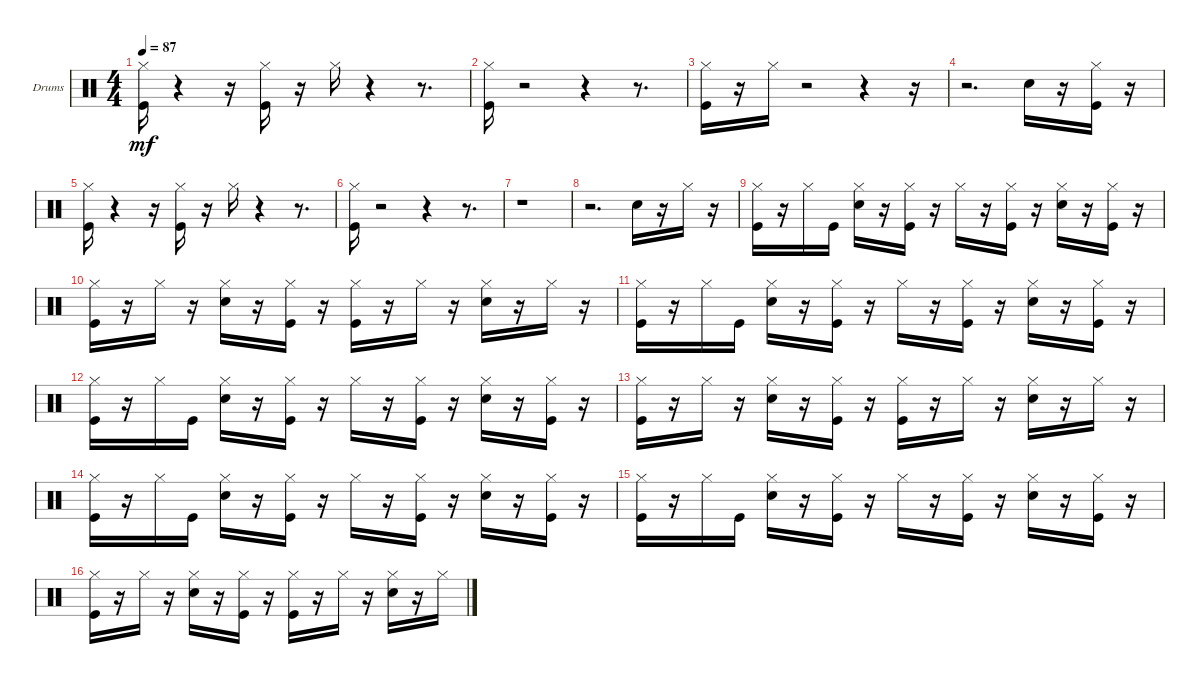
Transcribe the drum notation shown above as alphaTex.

\bracketExtendMode groupsimilarinstruments
\firstSystemTrackNameOrientation horizontal
\otherSystemsTrackNameOrientation horizontal
\track ("MIDI out" "Drums") {instrument percussion}
\staff {score}
\articulation defaults
\ts (4 4)
\tempo 87
\clef neutral
\ks c
("Hi-Hat (closed)" "Kick (hit)").16{dy mf} r.4 r.16 ("Kick (hit)" "Hi-Hat (closed)").16 r.16 "Hi-Hat (closed)".16 r.4 r.8{d} |
("Hi-Hat (closed)" "Kick (hit)").16 r.2 r.4 r.8{d} |
("Kick (hit)" "Hi-Hat (closed)").16 r.16 "Hi-Hat (closed)".16 r.2 r.4 r.16 |
r.2{d} "Snare (hit) 2".16 r.16 ("Hi-Hat (closed)" "Kick (hit)").16 r.16 |
("Kick (hit)" "Hi-Hat (closed)").16 r.4 r.16 ("Kick (hit)" "Hi-Hat (closed)").16 r.16 "Hi-Hat (closed)".16 r.4 r.8{d} |
("Kick (hit)" "Hi-Hat (closed)").16 r.2 r.4 r.8{d} |
r.1 |
r.2{d} "Snare (hit) 2".16 r.16 "Hi-Hat (closed)".16 r.16 |
("Hi-Hat (closed)" "Kick (hit)").16 r.16 "Hi-Hat (closed)".16 "Kick (hit)".16 ("Hi-Hat (closed)" "Snare (hit) 2").16 r.16 ("Kick (hit)" "Hi-Hat (closed)").16 r.16 "Hi-Hat (closed)".16 r.16 ("Hi-Hat (closed)" "Kick (hit)").16 r.16 ("Snare (hit) 2" "Hi-Hat (closed)").16 r.16 ("Kick (hit)" "Hi-Hat (closed)").16 r.16 |
("Hi-Hat (closed)" "Kick (hit)").16 r.16 "Hi-Hat (closed)".16 r.16 ("Hi-Hat (closed)" "Snare (hit) 2").16 r.16 ("Kick (hit)" "Hi-Hat (closed)").16 r.16 ("Kick (hit)" "Hi-Hat (closed)").16 r.16 "Hi-Hat (closed)".16 r.16 ("Hi-Hat (closed)" "Snare (hit) 2").16 r.16 "Hi-Hat (closed)".16 r.16 |
("Kick (hit)" "Hi-Hat (closed)").16 r.16 "Hi-Hat (closed)".16 "Kick (hit)".16 ("Hi-Hat (closed)" "Snare (hit) 2").16 r.16 ("Hi-Hat (closed)" "Kick (hit)").16 r.16 "Hi-Hat (closed)".16 r.16 ("Hi-Hat (closed)" "Kick (hit)").16 r.16 ("Snare (hit) 2" "Hi-Hat (closed)").16 r.16 ("Kick (hit)" "Hi-Hat (closed)").16 r.16 |
("Hi-Hat (closed)" "Kick (hit)").16 r.16 "Hi-Hat (closed)".16 "Kick (hit)".16 ("Snare (hit) 2" "Hi-Hat (closed)").16 r.16 ("Hi-Hat (closed)" "Kick (hit)").16 r.16 "Hi-Hat (closed)".16 r.16 ("Hi-Hat (closed)" "Kick (hit)").16 r.16 ("Hi-Hat (closed)" "Snare (hit) 2").16 r.16 ("Kick (hit)" "Hi-Hat (closed)").16 r.16 |
("Hi-Hat (closed)" "Kick (hit)").16 r.16 "Hi-Hat (closed)".16 r.16 ("Hi-Hat (closed)" "Snare (hit) 2").16 r.16 ("Hi-Hat (closed)" "Kick (hit)").16 r.16 ("Kick (hit)" "Hi-Hat (closed)").16 r.16 "Hi-Hat (closed)".16 r.16 ("Hi-Hat (closed)" "Snare (hit) 2").16 r.16 "Hi-Hat (closed)".16 r.16 |
("Kick (hit)" "Hi-Hat (closed)").16 r.16 "Hi-Hat (closed)".16 "Kick (hit)".16 ("Hi-Hat (closed)" "Snare (hit) 2").16 r.16 ("Hi-Hat (closed)" "Kick (hit)").16 r.16 "Hi-Hat (closed)".16 r.16 ("Kick (hit)" "Hi-Hat (closed)").16 r.16 ("Hi-Hat (closed)" "Snare (hit) 2").16 r.16 ("Kick (hit)" "Hi-Hat (closed)").16 r.16 |
("Hi-Hat (closed)" "Kick (hit)").16 r.16 "Hi-Hat (closed)".16 "Kick (hit)".16 ("Hi-Hat (closed)" "Snare (hit) 2").16 r.16 ("Kick (hit)" "Hi-Hat (closed)").16 r.16 "Hi-Hat (closed)".16 r.16 ("Kick (hit)" "Hi-Hat (closed)").16 r.16 ("Hi-Hat (closed)" "Snare (hit) 2").16 r.16 ("Hi-Hat (closed)" "Kick (hit)").16 r.16 |
("Hi-Hat (closed)" "Kick (hit)").16 r.16 "Hi-Hat (closed)".16 r.16 ("Snare (hit) 2" "Hi-Hat (closed)").16 r.16 ("Kick (hit)" "Hi-Hat (closed)").16 r.16 ("Kick (hit)" "Hi-Hat (closed)").16 r.16 "Hi-Hat (closed)".16 r.16 ("Snare (hit) 2" "Hi-Hat (closed)").16 r.16 "Hi-Hat (closed)".16
